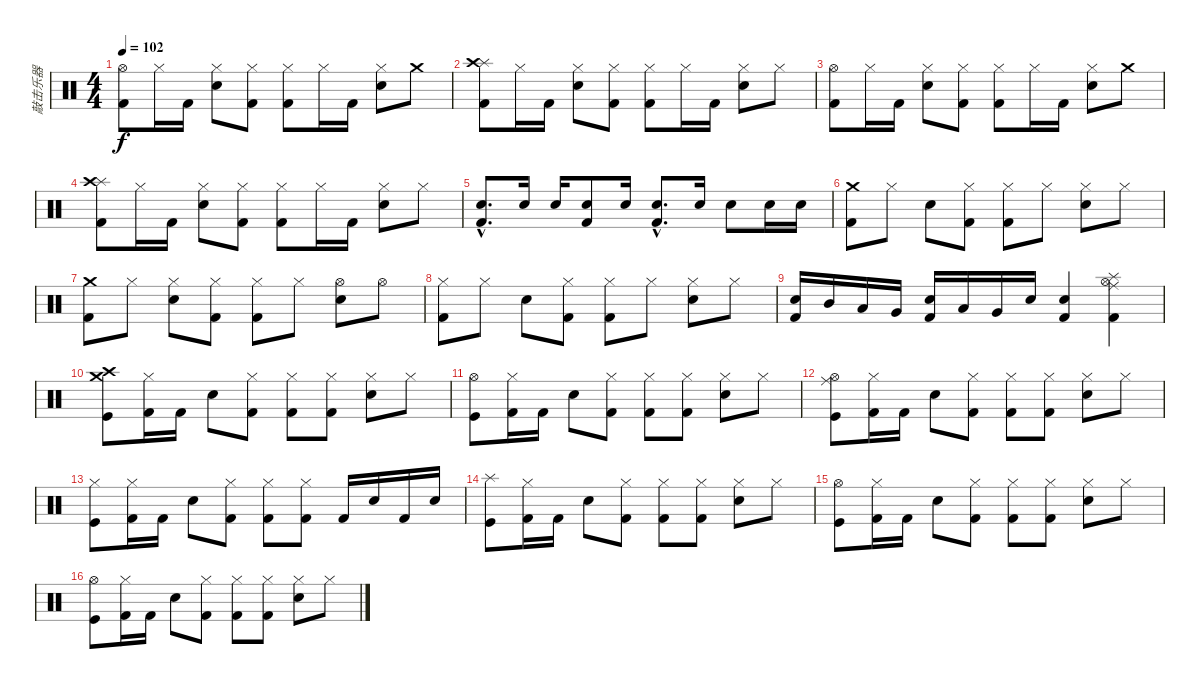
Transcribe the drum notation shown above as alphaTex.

\track ("敲击乐器" "敲击乐器") {instrument percussion}
\staff {score}
\articulation defaults
\ts (4 4)
\tempo 102
\clef neutral
\ks c
("Hi-Hat (open)" "Kick (hit) 2").8{dy f} "Hi-Hat (closed)".16 "Kick (hit) 2".16 ("Hi-Hat (closed)" "Electric Snare (hit)").8 ("Hi-Hat (closed)" "Kick (hit) 2").8 ("Hi-Hat (closed)" "Kick (hit) 2").8 "Hi-Hat (closed)".16 "Kick (hit) 2".16 ("Hi-Hat (closed)" "Electric Snare (hit)").8 "Crash medium (hit)".8 |
("Splash (hit)" "Crash high (hit)" "Kick (hit) 2").8 "Hi-Hat (closed)".16 "Kick (hit) 2".16 ("Hi-Hat (closed)" "Electric Snare (hit)").8 ("Hi-Hat (closed)" "Kick (hit) 2").8 ("Hi-Hat (closed)" "Kick (hit) 2").8 "Hi-Hat (closed)".16 "Kick (hit) 2".16 ("Hi-Hat (closed)" "Electric Snare (hit)").8 "Hi-Hat (closed)".8 |
("Hi-Hat (open)" "Kick (hit) 2").8 "Hi-Hat (closed)".16 "Kick (hit) 2".16 ("Hi-Hat (closed)" "Electric Snare (hit)").8 ("Hi-Hat (closed)" "Kick (hit) 2").8 ("Hi-Hat (closed)" "Kick (hit) 2").8 "Hi-Hat (closed)".16 "Kick (hit) 2".16 ("Hi-Hat (closed)" "Electric Snare (hit)").8 "Crash medium (hit)".8 |
("Splash (hit)" "Crash high (hit)" "Kick (hit) 2").8 "Hi-Hat (closed)".16 "Kick (hit) 2".16 ("Hi-Hat (closed)" "Electric Snare (hit)").8 ("Hi-Hat (closed)" "Kick (hit) 2").8 ("Hi-Hat (closed)" "Kick (hit) 2").8 "Hi-Hat (closed)".16 "Kick (hit) 2".16 ("Hi-Hat (closed)" "Electric Snare (hit)").8 "Hi-Hat (closed)".8 |
("Electric Snare (hit)"{hac} "Kick (hit) 2"{hac}).8{d} "Electric Snare (hit)".16 "Electric Snare (hit)".16 ("Electric Snare (hit)" "Kick (hit) 2").8 "Electric Snare (hit)".16 ("Electric Snare (hit)"{hac} "Kick (hit) 2"{hac}).8{d} "Electric Snare (hit)".16 "Electric Snare (hit)".8 "Electric Snare (hit)".16 "Electric Snare (hit)".16 |
("Crash medium (hit)" "Kick (hit) 2").8 "Hi-Hat (closed)".8 "Electric Snare (hit)".8 ("Hi-Hat (closed)" "Kick (hit) 2").8 ("Hi-Hat (closed)" "Kick (hit) 2").8 "Hi-Hat (closed)".8 ("Hi-Hat (closed)" "Electric Snare (hit)").8 "Hi-Hat (closed)".8 |
("Crash medium (hit)" "Kick (hit) 2").8 "Hi-Hat (closed)".8 ("Hi-Hat (closed)" "Electric Snare (hit)").8 ("Hi-Hat (closed)" "Kick (hit) 2").8 ("Hi-Hat (closed)" "Kick (hit) 2").8 "Hi-Hat (closed)".8 ("Hi-Hat (open)" "Electric Snare (hit)").8 "Hi-Hat (open)".8 |
("Hi-Hat (closed)" "Kick (hit) 2").8 "Hi-Hat (closed)".8 "Electric Snare (hit)".8 ("Hi-Hat (closed)" "Kick (hit) 2").8 ("Hi-Hat (closed)" "Kick (hit) 2").8 "Hi-Hat (closed)".8 ("Hi-Hat (closed)" "Electric Snare (hit)").8 "Hi-Hat (closed)".8 |
("Electric Snare (hit)" "Kick (hit) 2").16 "Mid Tom (hit)".16 "Low Tom (hit)".16 "Very Low Tom (hit)".16 ("Electric Snare (hit)" "Kick (hit) 2").16 "Low Tom (hit)".16 "Very Low Tom (hit)".16 "Electric Snare (hit)".16 ("Electric Snare (hit)" "Kick (hit) 2").4 ("Splash (hit)" "Ride (middle)" "Hi-Hat (open)" "Kick (hit) 2").4 |
("Crash medium (hit)" "Crash high (hit)" "Kick (hit)").8 ("Hi-Hat (closed)" "Kick (hit) 2").16 "Kick (hit) 2".16 "Electric Snare (hit)".8 ("Hi-Hat (closed)" "Kick (hit) 2").8 ("Hi-Hat (closed)" "Kick (hit) 2").8 ("Hi-Hat (closed)" "Kick (hit) 2").8 ("Hi-Hat (closed)" "Electric Snare (hit)").8 "Hi-Hat (closed)".8 |
("Hi-Hat (open)" "Kick (hit)").8 ("Hi-Hat (closed)" "Kick (hit) 2").16 "Kick (hit) 2".16 "Electric Snare (hit)".8 ("Hi-Hat (closed)" "Kick (hit) 2").8 ("Hi-Hat (closed)" "Kick (hit) 2").8 ("Hi-Hat (closed)" "Kick (hit) 2").8 ("Hi-Hat (closed)" "Electric Snare (hit)").8 "Hi-Hat (closed)".8 |
("Ride (middle)" "Hi-Hat (open)" "Kick (hit)").8 ("Hi-Hat (closed)" "Kick (hit) 2").16 "Kick (hit) 2".16 "Electric Snare (hit)".8 ("Hi-Hat (closed)" "Kick (hit) 2").8 ("Hi-Hat (closed)" "Kick (hit) 2").8 ("Hi-Hat (closed)" "Kick (hit) 2").8 ("Hi-Hat (closed)" "Electric Snare (hit)").8 "Hi-Hat (closed)".8 |
("Hi-Hat (closed)" "Kick (hit)").8 ("Hi-Hat (closed)" "Kick (hit) 2").16 "Kick (hit) 2".16 "Electric Snare (hit)".8 ("Hi-Hat (closed)" "Kick (hit) 2").8 ("Hi-Hat (closed)" "Kick (hit) 2").8 ("Hi-Hat (closed)" "Kick (hit) 2").8 "Kick (hit) 2".16 "Electric Snare (hit)".16 "Kick (hit) 2".16 "Electric Snare (hit)".16 |
("Splash (hit)" "Kick (hit)").8 ("Hi-Hat (closed)" "Kick (hit) 2").16 "Kick (hit) 2".16 "Electric Snare (hit)".8 ("Hi-Hat (closed)" "Kick (hit) 2").8 ("Hi-Hat (closed)" "Kick (hit) 2").8 ("Hi-Hat (closed)" "Kick (hit) 2").8 ("Hi-Hat (closed)" "Electric Snare (hit)").8 "Hi-Hat (closed)".8 |
("Hi-Hat (open)" "Kick (hit)").8 ("Hi-Hat (closed)" "Kick (hit) 2").16 "Kick (hit) 2".16 "Electric Snare (hit)".8 ("Hi-Hat (closed)" "Kick (hit) 2").8 ("Hi-Hat (closed)" "Kick (hit) 2").8 ("Hi-Hat (closed)" "Kick (hit) 2").8 ("Hi-Hat (closed)" "Electric Snare (hit)").8 "Hi-Hat (closed)".8 |
("Hi-Hat (open)" "Kick (hit)").8 ("Hi-Hat (closed)" "Kick (hit) 2").16 "Kick (hit) 2".16 "Electric Snare (hit)".8 ("Hi-Hat (closed)" "Kick (hit) 2").8 ("Hi-Hat (closed)" "Kick (hit) 2").8 ("Hi-Hat (closed)" "Kick (hit) 2").8 ("Hi-Hat (closed)" "Electric Snare (hit)").8 "Hi-Hat (closed)".8
